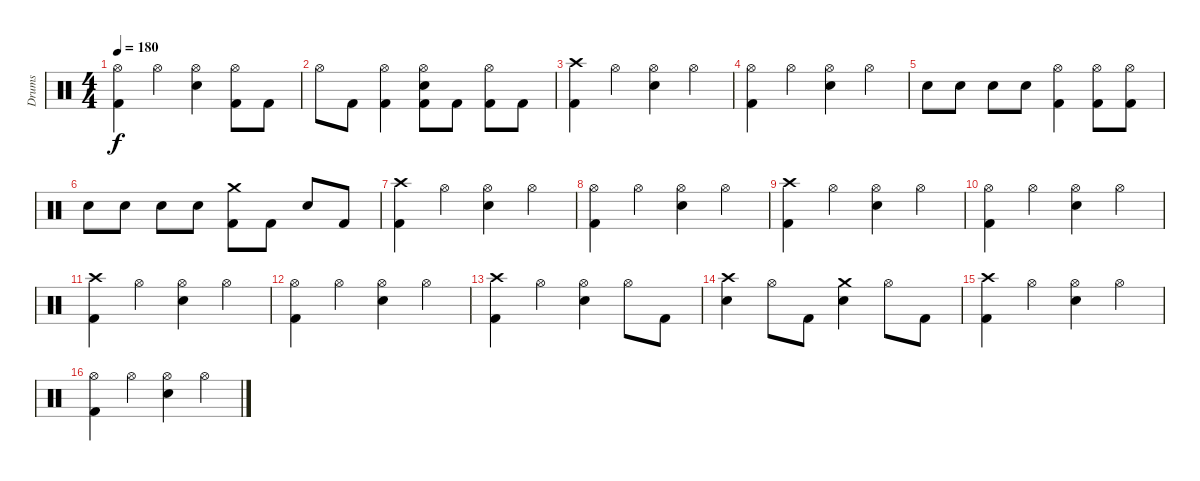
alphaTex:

\track ("Drums" "Drums") {instrument percussion}
\staff {score}
\articulation defaults
\ts (4 4)
\tempo 180
\clef neutral
\ks c
("Hi-Hat (open)" "Kick (hit) 2").4{dy f} "Hi-Hat (open)".4 ("Hi-Hat (open)" "Electric Snare (hit)").4 ("Hi-Hat (open)" "Kick (hit) 2").8 "Kick (hit) 2".8 |
"Hi-Hat (open)".8 "Kick (hit) 2".8 ("Hi-Hat (open)" "Kick (hit) 2").4 ("Kick (hit) 2" "Hi-Hat (open)" "Electric Snare (hit)").8 "Kick (hit) 2".8 ("Kick (hit) 2" "Hi-Hat (open)").8 "Kick (hit) 2".8 |
("Crash high (hit)" "Kick (hit) 2").4 "Hi-Hat (open)".4 ("Hi-Hat (open)" "Electric Snare (hit)").4 "Hi-Hat (open)".4 |
("Hi-Hat (open)" "Kick (hit) 2").4 "Hi-Hat (open)".4 ("Hi-Hat (open)" "Electric Snare (hit)").4 "Hi-Hat (open)".4 |
"Electric Snare (hit)".8 "Electric Snare (hit)".8 "Electric Snare (hit)".8 "Electric Snare (hit)".8 ("Hi-Hat (open)" "Kick (hit) 2").4 ("Hi-Hat (open)" "Kick (hit) 2").8 ("Hi-Hat (open)" "Kick (hit) 2").8 |
"Electric Snare (hit)".8 "Electric Snare (hit)".8 "Electric Snare (hit)".8 "Electric Snare (hit)".8 ("Crash medium (hit)" "Kick (hit) 2").8 "Kick (hit) 2".8 "Electric Snare (hit)".8 "Kick (hit) 2".8 |
("Crash high (hit)" "Kick (hit) 2").4 "Hi-Hat (open)".4 ("Hi-Hat (open)" "Electric Snare (hit)").4 "Hi-Hat (open)".4 |
("Hi-Hat (open)" "Kick (hit) 2").4 "Hi-Hat (open)".4 ("Hi-Hat (open)" "Electric Snare (hit)").4 "Hi-Hat (open)".4 |
("Crash high (hit)" "Kick (hit) 2").4 "Hi-Hat (open)".4 ("Hi-Hat (open)" "Electric Snare (hit)").4 "Hi-Hat (open)".4 |
("Hi-Hat (open)" "Kick (hit) 2").4 "Hi-Hat (open)".4 ("Hi-Hat (open)" "Electric Snare (hit)").4 "Hi-Hat (open)".4 |
("Crash high (hit)" "Kick (hit) 2").4 "Hi-Hat (open)".4 ("Hi-Hat (open)" "Electric Snare (hit)").4 "Hi-Hat (open)".4 |
("Hi-Hat (open)" "Kick (hit) 2").4 "Hi-Hat (open)".4 ("Hi-Hat (open)" "Electric Snare (hit)").4 "Hi-Hat (open)".4 |
("Crash high (hit)" "Kick (hit) 2").4 "Hi-Hat (open)".4 ("Hi-Hat (open)" "Electric Snare (hit)").4 "Hi-Hat (open)".8 "Kick (hit) 2".8 |
("Crash high (hit)" "Electric Snare (hit)").4 "Hi-Hat (open)".8 "Kick (hit) 2".8 ("Crash medium (hit)" "Electric Snare (hit)").4 "Hi-Hat (open)".8 "Kick (hit) 2".8 |
("Crash high (hit)" "Kick (hit) 2").4 "Hi-Hat (open)".4 ("Hi-Hat (open)" "Electric Snare (hit)").4 "Hi-Hat (open)".4 |
("Hi-Hat (open)" "Kick (hit) 2").4 "Hi-Hat (open)".4 ("Hi-Hat (open)" "Electric Snare (hit)").4 "Hi-Hat (open)".4
